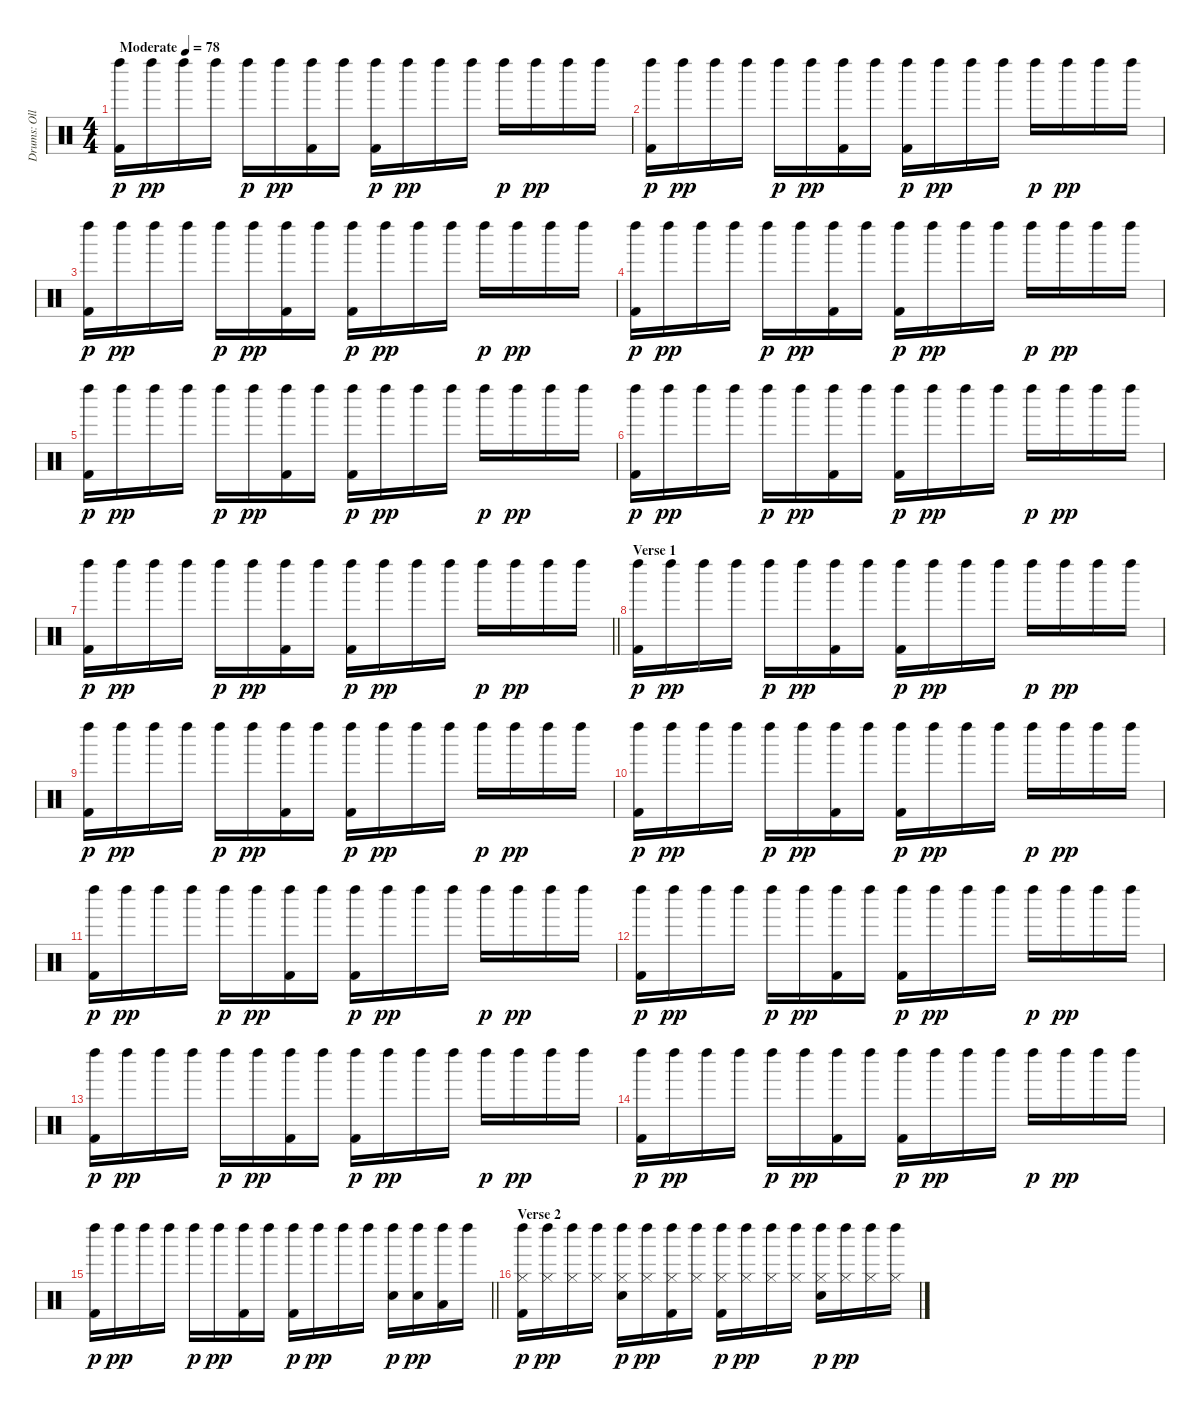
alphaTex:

\track ("Drums: Olle Romeo" "Drums: Oll") {instrument percussion}
\staff {score}
\articulation defaults
\ts (4 4)
\tempo (78 "Moderate")
\clef neutral
\ks c
("Kick (hit) 2" "Left Maraca (hit)").16{dy p} "Left Maraca (hit)".16{dy pp} "Left Maraca (hit)".16 "Left Maraca (hit)".16 "Left Maraca (hit)".16{dy p} "Left Maraca (hit)".16{dy pp} ("Kick (hit) 2" "Left Maraca (hit)").16 "Left Maraca (hit)".16 ("Kick (hit) 2" "Left Maraca (hit)").16{dy p} "Left Maraca (hit)".16{dy pp} "Left Maraca (hit)".16 "Left Maraca (hit)".16 "Left Maraca (hit)".16{dy p} "Left Maraca (hit)".16{dy pp} "Left Maraca (hit)".16 "Left Maraca (hit)".16 |
("Kick (hit) 2" "Left Maraca (hit)").16{dy p} "Left Maraca (hit)".16{dy pp} "Left Maraca (hit)".16 "Left Maraca (hit)".16 "Left Maraca (hit)".16{dy p} "Left Maraca (hit)".16{dy pp} ("Kick (hit) 2" "Left Maraca (hit)").16 "Left Maraca (hit)".16 ("Kick (hit) 2" "Left Maraca (hit)").16{dy p} "Left Maraca (hit)".16{dy pp} "Left Maraca (hit)".16 "Left Maraca (hit)".16 "Left Maraca (hit)".16{dy p} "Left Maraca (hit)".16{dy pp} "Left Maraca (hit)".16 "Left Maraca (hit)".16 |
("Kick (hit) 2" "Left Maraca (hit)").16{dy p} "Left Maraca (hit)".16{dy pp} "Left Maraca (hit)".16 "Left Maraca (hit)".16 "Left Maraca (hit)".16{dy p} "Left Maraca (hit)".16{dy pp} ("Kick (hit) 2" "Left Maraca (hit)").16 "Left Maraca (hit)".16 ("Kick (hit) 2" "Left Maraca (hit)").16{dy p} "Left Maraca (hit)".16{dy pp} "Left Maraca (hit)".16 "Left Maraca (hit)".16 "Left Maraca (hit)".16{dy p} "Left Maraca (hit)".16{dy pp} "Left Maraca (hit)".16 "Left Maraca (hit)".16 |
("Kick (hit) 2" "Left Maraca (hit)").16{dy p} "Left Maraca (hit)".16{dy pp} "Left Maraca (hit)".16 "Left Maraca (hit)".16 "Left Maraca (hit)".16{dy p} "Left Maraca (hit)".16{dy pp} ("Kick (hit) 2" "Left Maraca (hit)").16 "Left Maraca (hit)".16 ("Kick (hit) 2" "Left Maraca (hit)").16{dy p} "Left Maraca (hit)".16{dy pp} "Left Maraca (hit)".16 "Left Maraca (hit)".16 "Left Maraca (hit)".16{dy p} "Left Maraca (hit)".16{dy pp} "Left Maraca (hit)".16 "Left Maraca (hit)".16 |
("Kick (hit) 2" "Left Maraca (hit)").16{dy p} "Left Maraca (hit)".16{dy pp} "Left Maraca (hit)".16 "Left Maraca (hit)".16 "Left Maraca (hit)".16{dy p} "Left Maraca (hit)".16{dy pp} ("Kick (hit) 2" "Left Maraca (hit)").16 "Left Maraca (hit)".16 ("Kick (hit) 2" "Left Maraca (hit)").16{dy p} "Left Maraca (hit)".16{dy pp} "Left Maraca (hit)".16 "Left Maraca (hit)".16 "Left Maraca (hit)".16{dy p} "Left Maraca (hit)".16{dy pp} "Left Maraca (hit)".16 "Left Maraca (hit)".16 |
("Kick (hit) 2" "Left Maraca (hit)").16{dy p} "Left Maraca (hit)".16{dy pp} "Left Maraca (hit)".16 "Left Maraca (hit)".16 "Left Maraca (hit)".16{dy p} "Left Maraca (hit)".16{dy pp} ("Kick (hit) 2" "Left Maraca (hit)").16 "Left Maraca (hit)".16 ("Kick (hit) 2" "Left Maraca (hit)").16{dy p} "Left Maraca (hit)".16{dy pp} "Left Maraca (hit)".16 "Left Maraca (hit)".16 "Left Maraca (hit)".16{dy p} "Left Maraca (hit)".16{dy pp} "Left Maraca (hit)".16 "Left Maraca (hit)".16 |
\barLineRight lightlight
("Kick (hit) 2" "Left Maraca (hit)").16{dy p} "Left Maraca (hit)".16{dy pp} "Left Maraca (hit)".16 "Left Maraca (hit)".16 "Left Maraca (hit)".16{dy p} "Left Maraca (hit)".16{dy pp} ("Kick (hit) 2" "Left Maraca (hit)").16 "Left Maraca (hit)".16 ("Kick (hit) 2" "Left Maraca (hit)").16{dy p} "Left Maraca (hit)".16{dy pp} "Left Maraca (hit)".16 "Left Maraca (hit)".16 "Left Maraca (hit)".16{dy p} "Left Maraca (hit)".16{dy pp} "Left Maraca (hit)".16 "Left Maraca (hit)".16 |
\section ("" "Verse 1")
("Kick (hit) 2" "Left Maraca (hit)").16{dy p} "Left Maraca (hit)".16{dy pp} "Left Maraca (hit)".16 "Left Maraca (hit)".16 "Left Maraca (hit)".16{dy p} "Left Maraca (hit)".16{dy pp} ("Kick (hit) 2" "Left Maraca (hit)").16 "Left Maraca (hit)".16 ("Kick (hit) 2" "Left Maraca (hit)").16{dy p} "Left Maraca (hit)".16{dy pp} "Left Maraca (hit)".16 "Left Maraca (hit)".16 "Left Maraca (hit)".16{dy p} "Left Maraca (hit)".16{dy pp} "Left Maraca (hit)".16 "Left Maraca (hit)".16 |
("Kick (hit) 2" "Left Maraca (hit)").16{dy p} "Left Maraca (hit)".16{dy pp} "Left Maraca (hit)".16 "Left Maraca (hit)".16 "Left Maraca (hit)".16{dy p} "Left Maraca (hit)".16{dy pp} ("Kick (hit) 2" "Left Maraca (hit)").16 "Left Maraca (hit)".16 ("Kick (hit) 2" "Left Maraca (hit)").16{dy p} "Left Maraca (hit)".16{dy pp} "Left Maraca (hit)".16 "Left Maraca (hit)".16 "Left Maraca (hit)".16{dy p} "Left Maraca (hit)".16{dy pp} "Left Maraca (hit)".16 "Left Maraca (hit)".16 |
("Kick (hit) 2" "Left Maraca (hit)").16{dy p} "Left Maraca (hit)".16{dy pp} "Left Maraca (hit)".16 "Left Maraca (hit)".16 "Left Maraca (hit)".16{dy p} "Left Maraca (hit)".16{dy pp} ("Kick (hit) 2" "Left Maraca (hit)").16 "Left Maraca (hit)".16 ("Kick (hit) 2" "Left Maraca (hit)").16{dy p} "Left Maraca (hit)".16{dy pp} "Left Maraca (hit)".16 "Left Maraca (hit)".16 "Left Maraca (hit)".16{dy p} "Left Maraca (hit)".16{dy pp} "Left Maraca (hit)".16 "Left Maraca (hit)".16 |
("Kick (hit) 2" "Left Maraca (hit)").16{dy p} "Left Maraca (hit)".16{dy pp} "Left Maraca (hit)".16 "Left Maraca (hit)".16 "Left Maraca (hit)".16{dy p} "Left Maraca (hit)".16{dy pp} ("Kick (hit) 2" "Left Maraca (hit)").16 "Left Maraca (hit)".16 ("Kick (hit) 2" "Left Maraca (hit)").16{dy p} "Left Maraca (hit)".16{dy pp} "Left Maraca (hit)".16 "Left Maraca (hit)".16 "Left Maraca (hit)".16{dy p} "Left Maraca (hit)".16{dy pp} "Left Maraca (hit)".16 "Left Maraca (hit)".16 |
("Kick (hit) 2" "Left Maraca (hit)").16{dy p} "Left Maraca (hit)".16{dy pp} "Left Maraca (hit)".16 "Left Maraca (hit)".16 "Left Maraca (hit)".16{dy p} "Left Maraca (hit)".16{dy pp} ("Kick (hit) 2" "Left Maraca (hit)").16 "Left Maraca (hit)".16 ("Kick (hit) 2" "Left Maraca (hit)").16{dy p} "Left Maraca (hit)".16{dy pp} "Left Maraca (hit)".16 "Left Maraca (hit)".16 "Left Maraca (hit)".16{dy p} "Left Maraca (hit)".16{dy pp} "Left Maraca (hit)".16 "Left Maraca (hit)".16 |
("Kick (hit) 2" "Left Maraca (hit)").16{dy p} "Left Maraca (hit)".16{dy pp} "Left Maraca (hit)".16 "Left Maraca (hit)".16 "Left Maraca (hit)".16{dy p} "Left Maraca (hit)".16{dy pp} ("Kick (hit) 2" "Left Maraca (hit)").16 "Left Maraca (hit)".16 ("Kick (hit) 2" "Left Maraca (hit)").16{dy p} "Left Maraca (hit)".16{dy pp} "Left Maraca (hit)".16 "Left Maraca (hit)".16 "Left Maraca (hit)".16{dy p} "Left Maraca (hit)".16{dy pp} "Left Maraca (hit)".16 "Left Maraca (hit)".16 |
("Kick (hit) 2" "Left Maraca (hit)").16{dy p} "Left Maraca (hit)".16{dy pp} "Left Maraca (hit)".16 "Left Maraca (hit)".16 "Left Maraca (hit)".16{dy p} "Left Maraca (hit)".16{dy pp} ("Kick (hit) 2" "Left Maraca (hit)").16 "Left Maraca (hit)".16 ("Kick (hit) 2" "Left Maraca (hit)").16{dy p} "Left Maraca (hit)".16{dy pp} "Left Maraca (hit)".16 "Left Maraca (hit)".16 "Left Maraca (hit)".16{dy p} "Left Maraca (hit)".16{dy pp} "Left Maraca (hit)".16 "Left Maraca (hit)".16 |
\barLineRight lightlight
("Kick (hit) 2" "Left Maraca (hit)").16{dy p} "Left Maraca (hit)".16{dy pp} "Left Maraca (hit)".16 "Left Maraca (hit)".16 "Left Maraca (hit)".16{dy p} "Left Maraca (hit)".16{dy pp} ("Kick (hit) 2" "Left Maraca (hit)").16 "Left Maraca (hit)".16 ("Kick (hit) 2" "Left Maraca (hit)").16{dy p} "Left Maraca (hit)".16{dy pp} "Left Maraca (hit)".16 "Left Maraca (hit)".16 ("Snare (hit) 2" "Left Maraca (hit)").16{dy p} ("Snare (hit) 2" "Left Maraca (hit)").16{dy pp} ("Left Maraca (hit)" "Low Floor Tom (hit)").16 "Left Maraca (hit)".16 |
\section ("" "Verse 2")
("Kick (hit) 2" "Hi-Hat (closed)" "Left Maraca (hit)").16{dy p} ("Hi-Hat (closed)" "Left Maraca (hit)").16{dy pp} ("Hi-Hat (closed)" "Left Maraca (hit)").16 ("Hi-Hat (closed)" "Left Maraca (hit)").16 ("Snare (hit) 2" "Hi-Hat (closed)" "Left Maraca (hit)").16{dy p} ("Hi-Hat (closed)" "Left Maraca (hit)").16{dy pp} ("Kick (hit) 2" "Hi-Hat (closed)" "Left Maraca (hit)").16 ("Hi-Hat (closed)" "Left Maraca (hit)").16 ("Kick (hit) 2" "Hi-Hat (closed)" "Left Maraca (hit)").16{dy p} ("Hi-Hat (closed)" "Left Maraca (hit)").16{dy pp} ("Hi-Hat (closed)" "Left Maraca (hit)").16 ("Hi-Hat (closed)" "Left Maraca (hit)").16 ("Snare (hit) 2" "Hi-Hat (closed)" "Left Maraca (hit)").16{dy p} ("Hi-Hat (closed)" "Left Maraca (hit)").16{dy pp} ("Hi-Hat (closed)" "Left Maraca (hit)").16 ("Hi-Hat (closed)" "Left Maraca (hit)").16
